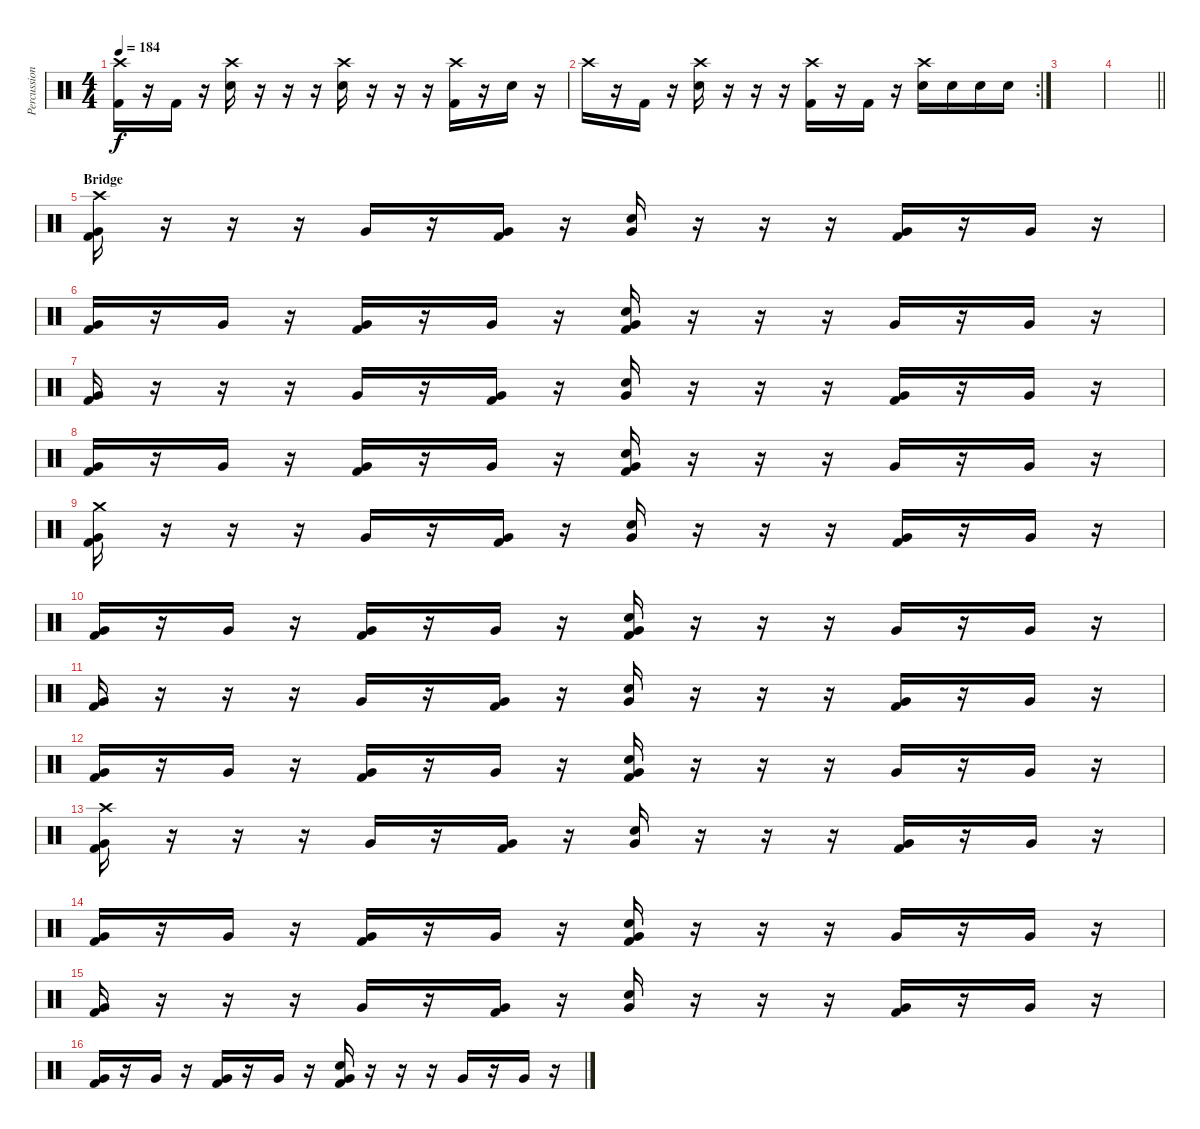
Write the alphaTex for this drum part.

\track ("Percussion" "Percussion") {instrument percussion}
\staff {score}
\articulation defaults
\ts (4 4)
\tempo 184
\clef neutral
\ks c
("Crash high (hit)" "Kick (hit) 2").16{dy f} r.16 "Kick (hit) 2".16 r.16 ("Crash high (hit)" "Electric Snare (hit)").16 r.16 r.16 r.16 ("Crash high (hit)" "Electric Snare (hit)").16 r.16 r.16 r.16 ("Crash high (hit)" "Kick (hit) 2").16 r.16 "Electric Snare (hit)".16 r.16 |
\rc 2 "Crash high (hit)".16
r.16 "Kick (hit) 2".16 r.16 ("Crash high (hit)" "Electric Snare (hit)").16 r.16 r.16 r.16 ("Crash high (hit)" "Kick (hit) 2").16 r.16 "Kick (hit) 2".16 r.16 ("Crash high (hit)" "Electric Snare (hit)").16 "Electric Snare (hit)".16 "Electric Snare (hit)".16 "Electric Snare (hit)".16 |
|
\barLineRight lightlight
|
\section ("" "Bridge")
("Crash high (hit)" "Very Low Tom (hit)" "Kick (hit) 2").16 r.16 r.16 r.16 "Very Low Tom (hit)".16 r.16 ("Very Low Tom (hit)" "Kick (hit) 2").16 r.16 ("Electric Snare (hit)" "Very Low Tom (hit)").16 r.16 r.16 r.16 ("Very Low Tom (hit)" "Kick (hit) 2").16 r.16 "Very Low Tom (hit)".16 r.16 |
("Very Low Tom (hit)" "Kick (hit) 2").16 r.16 "Very Low Tom (hit)".16 r.16 ("Very Low Tom (hit)" "Kick (hit) 2").16 r.16 "Very Low Tom (hit)".16 r.16 ("Electric Snare (hit)" "Very Low Tom (hit)" "Kick (hit) 2").16 r.16 r.16 r.16 "Very Low Tom (hit)".16 r.16 "Very Low Tom (hit)".16 r.16 |
("Very Low Tom (hit)" "Kick (hit) 2").16 r.16 r.16 r.16 "Very Low Tom (hit)".16 r.16 ("Very Low Tom (hit)" "Kick (hit) 2").16 r.16 ("Electric Snare (hit)" "Very Low Tom (hit)").16 r.16 r.16 r.16 ("Very Low Tom (hit)" "Kick (hit) 2").16 r.16 "Very Low Tom (hit)".16 r.16 |
("Very Low Tom (hit)" "Kick (hit) 2").16 r.16 "Very Low Tom (hit)".16 r.16 ("Very Low Tom (hit)" "Kick (hit) 2").16 r.16 "Very Low Tom (hit)".16 r.16 ("Electric Snare (hit)" "Very Low Tom (hit)" "Kick (hit) 2").16 r.16 r.16 r.16 "Very Low Tom (hit)".16 r.16 "Very Low Tom (hit)".16 r.16 |
("Crash medium (hit)" "Very Low Tom (hit)" "Kick (hit) 2").16 r.16 r.16 r.16 "Very Low Tom (hit)".16 r.16 ("Very Low Tom (hit)" "Kick (hit) 2").16 r.16 ("Electric Snare (hit)" "Very Low Tom (hit)").16 r.16 r.16 r.16 ("Very Low Tom (hit)" "Kick (hit) 2").16 r.16 "Very Low Tom (hit)".16 r.16 |
("Very Low Tom (hit)" "Kick (hit) 2").16 r.16 "Very Low Tom (hit)".16 r.16 ("Very Low Tom (hit)" "Kick (hit) 2").16 r.16 "Very Low Tom (hit)".16 r.16 ("Electric Snare (hit)" "Very Low Tom (hit)" "Kick (hit) 2").16 r.16 r.16 r.16 "Very Low Tom (hit)".16 r.16 "Very Low Tom (hit)".16 r.16 |
("Very Low Tom (hit)" "Kick (hit) 2").16 r.16 r.16 r.16 "Very Low Tom (hit)".16 r.16 ("Very Low Tom (hit)" "Kick (hit) 2").16 r.16 ("Electric Snare (hit)" "Very Low Tom (hit)").16 r.16 r.16 r.16 ("Very Low Tom (hit)" "Kick (hit) 2").16 r.16 "Very Low Tom (hit)".16 r.16 |
("Very Low Tom (hit)" "Kick (hit) 2").16 r.16 "Very Low Tom (hit)".16 r.16 ("Very Low Tom (hit)" "Kick (hit) 2").16 r.16 "Very Low Tom (hit)".16 r.16 ("Electric Snare (hit)" "Very Low Tom (hit)" "Kick (hit) 2").16 r.16 r.16 r.16 "Very Low Tom (hit)".16 r.16 "Very Low Tom (hit)".16 r.16 |
("Crash high (hit)" "Very Low Tom (hit)" "Kick (hit) 2").16 r.16 r.16 r.16 "Very Low Tom (hit)".16 r.16 ("Very Low Tom (hit)" "Kick (hit) 2").16 r.16 ("Electric Snare (hit)" "Very Low Tom (hit)").16 r.16 r.16 r.16 ("Very Low Tom (hit)" "Kick (hit) 2").16 r.16 "Very Low Tom (hit)".16 r.16 |
("Very Low Tom (hit)" "Kick (hit) 2").16 r.16 "Very Low Tom (hit)".16 r.16 ("Very Low Tom (hit)" "Kick (hit) 2").16 r.16 "Very Low Tom (hit)".16 r.16 ("Electric Snare (hit)" "Very Low Tom (hit)" "Kick (hit) 2").16 r.16 r.16 r.16 "Very Low Tom (hit)".16 r.16 "Very Low Tom (hit)".16 r.16 |
("Very Low Tom (hit)" "Kick (hit) 2").16 r.16 r.16 r.16 "Very Low Tom (hit)".16 r.16 ("Very Low Tom (hit)" "Kick (hit) 2").16 r.16 ("Electric Snare (hit)" "Very Low Tom (hit)").16 r.16 r.16 r.16 ("Very Low Tom (hit)" "Kick (hit) 2").16 r.16 "Very Low Tom (hit)".16 r.16 |
("Very Low Tom (hit)" "Kick (hit) 2").16 r.16 "Very Low Tom (hit)".16 r.16 ("Very Low Tom (hit)" "Kick (hit) 2").16 r.16 "Very Low Tom (hit)".16 r.16 ("Electric Snare (hit)" "Very Low Tom (hit)" "Kick (hit) 2").16 r.16 r.16 r.16 "Very Low Tom (hit)".16 r.16 "Very Low Tom (hit)".16 r.16
